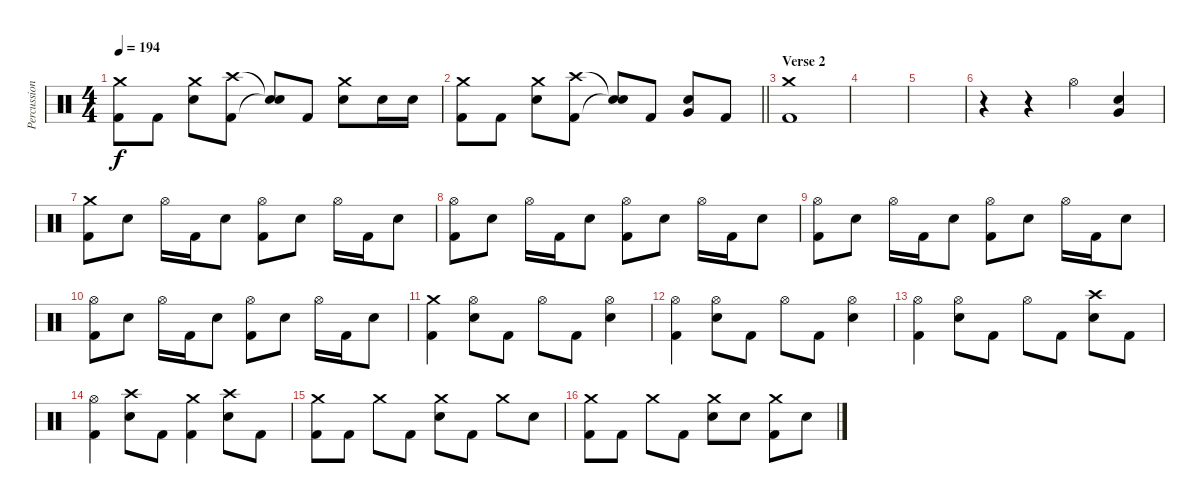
\track ("Percussions" "Percussion") {instrument percussion}
\staff {score}
\articulation defaults
\ts (4 4)
\tempo 194
\clef neutral
\ks c
("Crash medium (hit)" "Kick (hit) 2").8{dy f} "Kick (hit) 2".8 ("Crash medium (hit)" "Electric Snare (hit)").8 ("Crash high (hit)" "Kick (hit) 2").8 ("Snare (hit)"{t} "Snare (hit)"{t}).8 "Kick (hit) 2".8 ("Crash medium (hit)" "Electric Snare (hit)").8 "Electric Snare (hit)".16 "Electric Snare (hit)".16 |
\barLineRight lightlight
("Crash medium (hit)" "Kick (hit) 2").8 "Kick (hit) 2".8 ("Crash medium (hit)" "Electric Snare (hit)").8 ("Crash high (hit)" "Kick (hit) 2").8 ("Snare (hit)"{t} "Snare (hit)"{t}).8 "Kick (hit) 2".8 ("Very Low Tom (hit)" "Electric Snare (hit)").8 "Kick (hit) 2".8 |
\section ("" "Verse 2")
("Crash medium (hit)" "Kick (hit) 2").1 |
|
|
r.4 r.4 "Hi-Hat (open)".4 ("Very Low Tom (hit)" "Electric Snare (hit)").4 |
("Crash medium (hit)" "Kick (hit) 2").8 "Electric Snare (hit)".8 "Hi-Hat (open)".16 "Kick (hit) 2".16 "Electric Snare (hit)".8 ("Hi-Hat (open)" "Kick (hit) 2").8 "Electric Snare (hit)".8 "Hi-Hat (open)".16 "Kick (hit) 2".16 "Electric Snare (hit)".8 |
("Hi-Hat (open)" "Kick (hit) 2").8 "Electric Snare (hit)".8 "Hi-Hat (open)".16 "Kick (hit) 2".16 "Electric Snare (hit)".8 ("Hi-Hat (open)" "Kick (hit) 2").8 "Electric Snare (hit)".8 "Hi-Hat (open)".16 "Kick (hit) 2".16 "Electric Snare (hit)".8 |
("Hi-Hat (open)" "Kick (hit) 2").8 "Electric Snare (hit)".8 "Hi-Hat (open)".16 "Kick (hit) 2".16 "Electric Snare (hit)".8 ("Hi-Hat (open)" "Kick (hit) 2").8 "Electric Snare (hit)".8 "Hi-Hat (open)".16 "Kick (hit) 2".16 "Electric Snare (hit)".8 |
("Hi-Hat (open)" "Kick (hit) 2").8 "Electric Snare (hit)".8 "Hi-Hat (open)".16 "Kick (hit) 2".16 "Electric Snare (hit)".8 ("Hi-Hat (open)" "Kick (hit) 2").8 "Electric Snare (hit)".8 "Hi-Hat (open)".16 "Kick (hit) 2".16 "Electric Snare (hit)".8 |
("Crash medium (hit)" "Kick (hit) 2").4 ("Hi-Hat (open)" "Electric Snare (hit)").8 "Kick (hit) 2".8 "Hi-Hat (open)".8 "Kick (hit) 2".8 ("Hi-Hat (open)" "Electric Snare (hit)").4 |
("Hi-Hat (open)" "Kick (hit) 2").4 ("Hi-Hat (open)" "Electric Snare (hit)").8 "Kick (hit) 2".8 "Hi-Hat (open)".8 "Kick (hit) 2".8 ("Hi-Hat (open)" "Electric Snare (hit)").4 |
("Hi-Hat (open)" "Kick (hit) 2").4 ("Hi-Hat (open)" "Electric Snare (hit)").8 "Kick (hit) 2".8 "Hi-Hat (open)".8 "Kick (hit) 2".8 ("Crash high (hit)" "Electric Snare (hit)").8 "Kick (hit) 2".8 |
("Hi-Hat (open)" "Kick (hit) 2").4 ("Crash high (hit)" "Electric Snare (hit)").8 "Kick (hit) 2".8 ("Crash medium (hit)" "Kick (hit) 2").4 ("Crash high (hit)" "Electric Snare (hit)").8 "Kick (hit) 2".8 |
("Crash medium (hit)" "Kick (hit) 2").8 "Kick (hit) 2".8 "Crash medium (hit)".8 "Kick (hit) 2".8 ("Crash medium (hit)" "Electric Snare (hit)").8 "Kick (hit) 2".8 "Crash medium (hit)".8 "Electric Snare (hit)".8 |
("Crash medium (hit)" "Kick (hit) 2").8 "Kick (hit) 2".8 "Crash medium (hit)".8 "Kick (hit) 2".8 ("Crash medium (hit)" "Electric Snare (hit)").8 "Electric Snare (hit)".8 ("Crash medium (hit)" "Kick (hit) 2").8 "Electric Snare (hit)".8
